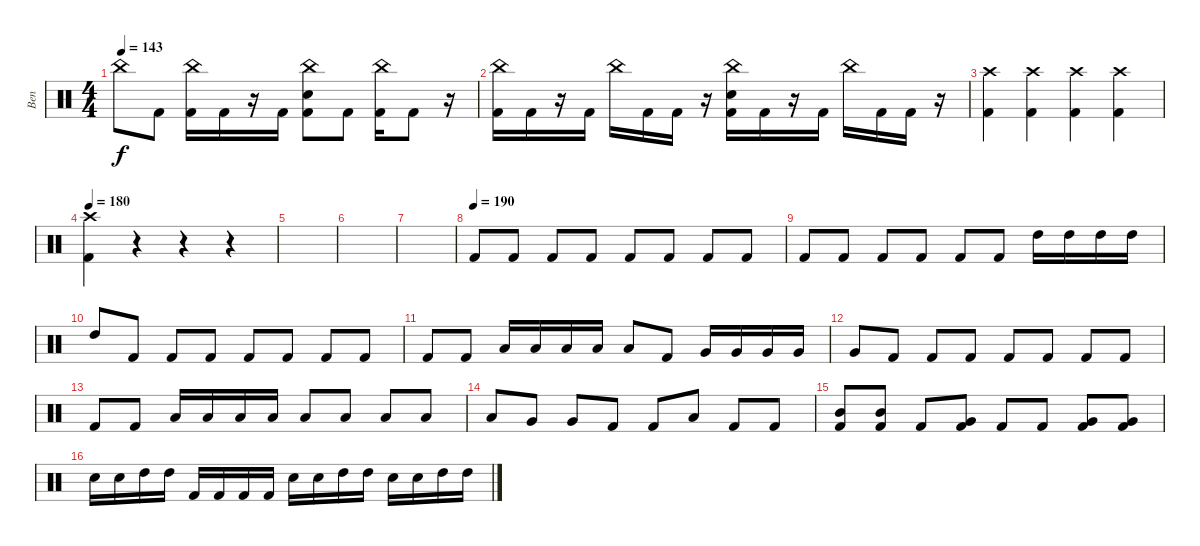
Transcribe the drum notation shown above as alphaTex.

\track ("Ben" "Ben") {instrument percussion}
\staff {score}
\articulation defaults
\ts (4 4)
\tempo 143
\clef neutral
\ks c "China (hit)".8{dy f} "Kick (hit) 2".8
("China (hit)" "Kick (hit) 2").16 "Kick (hit) 2".16 r.16 "Kick (hit) 2".16 ("China (hit)" "Electric Snare (hit)" "Kick (hit) 2").8 "Kick (hit) 2".8 ("China (hit)" "Kick (hit) 2").16 "Kick (hit) 2".8 r.16 |
("China (hit)" "Kick (hit) 2").16 "Kick (hit) 2".16 r.16 "Kick (hit) 2".16 "China (hit)".16 "Kick (hit) 2".16 "Kick (hit) 2".16 r.16 ("China (hit)" "Electric Snare (hit)" "Kick (hit) 2").16 "Kick (hit) 2".16 r.16 "Kick (hit) 2".16 "China (hit)".16 "Kick (hit) 2".16 "Kick (hit) 2".16 r.16 |
("Crash high (hit)" "Kick (hit) 2").4 ("Crash high (hit)" "Kick (hit) 2").4 ("Crash high (hit)" "Kick (hit) 2").4 ("Crash high (hit)" "Kick (hit) 2").4 |
\tempo 180
("Crash high (hit)" "Kick (hit) 2").4 r.4 r.4 r.4 |
|
|
|
\tempo (190)
"Kick (hit) 2".8 "Kick (hit) 2".8 "Kick (hit) 2".8 "Kick (hit) 2".8 "Kick (hit) 2".8 "Kick (hit) 2".8 "Kick (hit) 2".8 "Kick (hit) 2".8 |
"Kick (hit) 2".8 "Kick (hit) 2".8 "Kick (hit) 2".8 "Kick (hit) 2".8 "Kick (hit) 2".8 "Kick (hit) 2".8 "High Tom (hit)".16 "High Tom (hit)".16 "High Tom (hit)".16 "High Tom (hit)".16 |
"High Tom (hit)".8 "Kick (hit) 2".8 "Kick (hit) 2".8 "Kick (hit) 2".8 "Kick (hit) 2".8 "Kick (hit) 2".8 "Kick (hit) 2".8 "Kick (hit) 2".8 |
"Kick (hit) 2".8 "Kick (hit) 2".8 "Low Tom (hit)".16 "Low Tom (hit)".16 "Low Tom (hit)".16 "Low Tom (hit)".16 "Low Tom (hit)".8 "Kick (hit) 2".8 "Very Low Tom (hit)".16 "Very Low Tom (hit)".16 "Very Low Tom (hit)".16 "Very Low Tom (hit)".16 |
"Very Low Tom (hit)".8 "Kick (hit) 2".8 "Kick (hit) 2".8 "Kick (hit) 2".8 "Kick (hit) 2".8 "Kick (hit) 2".8 "Kick (hit) 2".8 "Kick (hit) 2".8 |
"Kick (hit) 2".8 "Kick (hit) 2".8 "Low Tom (hit)".16 "Low Tom (hit)".16 "Low Tom (hit)".16 "Low Tom (hit)".16 "Low Tom (hit)".8 "Low Tom (hit)".8 "Low Tom (hit)".8 "Low Tom (hit)".8 |
"Low Tom (hit)".8 "Very Low Tom (hit)".8 "Very Low Tom (hit)".8 "Kick (hit) 2".8 "Kick (hit) 2".8 "Low Tom (hit)".8 "Kick (hit) 2".8 "Kick (hit) 2".8 |
("Mid Tom (hit)" "Kick (hit) 2").8 ("Mid Tom (hit)" "Kick (hit) 2").8 "Kick (hit) 2".8 ("Very Low Tom (hit)" "Kick (hit) 2").8 "Kick (hit) 2".8 "Kick (hit) 2".8 ("Very Low Tom (hit)" "Kick (hit) 2").8 ("Very Low Tom (hit)" "Kick (hit) 2").8 |
"Electric Snare (hit)".16 "Electric Snare (hit)".16 "High Tom (hit)".16 "High Tom (hit)".16 "Kick (hit) 2".16 "Kick (hit) 2".16 "Kick (hit) 2".16 "Kick (hit) 2".16 "Electric Snare (hit)".16 "Electric Snare (hit)".16 "High Tom (hit)".16 "High Tom (hit)".16 "Electric Snare (hit)".16 "Electric Snare (hit)".16 "High Tom (hit)".16 "High Tom (hit)".16
